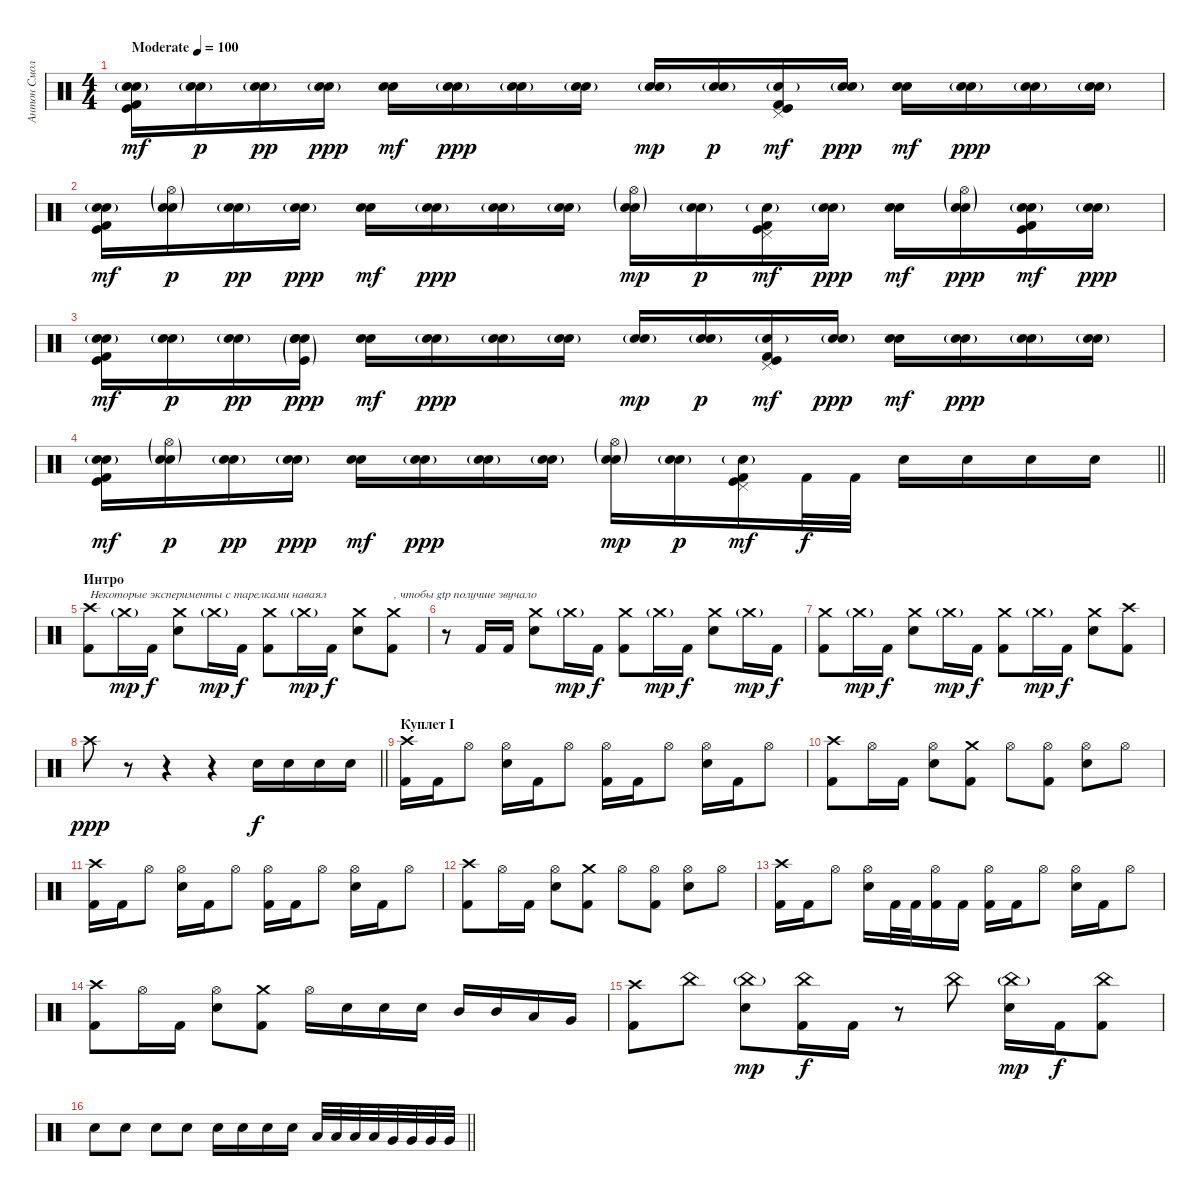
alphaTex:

\track ("Антон Смольянин" "Антон Смол") {instrument percussion}
\staff {score}
\articulation defaults
\ts (4 4)
\tempo (100 "Moderate")
\clef neutral
\ks c
("Snare (hit)"{g} "Snare (hit)"{g} "Kick (hit) 2" "Kick (hit)").16{dy mf volume 10 beam Down} ("Snare (hit)"{g} "Snare (hit)"{g}).16{dy p beam Down} ("Snare (hit)"{g} "Snare (hit)"{g}).16{dy pp beam Down} ("Snare (hit)"{g} "Snare (hit)"{g}).16{dy ppp beam Down} ("Snare (hit) 2" "Electric Snare (hit)").16{dy mf} ("Snare (hit)"{g} "Snare (hit)"{g}).16{dy ppp} ("Snare (hit)"{g} "Snare (hit)"{g}).16 ("Snare (hit)"{g} "Snare (hit)"{g}).16 ("Snare (hit)"{g} "Snare (hit)"{g}).16{dy mp} ("Snare (hit)"{g} "Snare (hit)"{g}).16{dy p} ("Pedal Hi-Hat (hit)" "Snare (hit)"{g} "Kick (hit) 2" "Kick (hit)").16{dy mf} ("Snare (hit)"{g} "Snare (hit)"{g}).16{dy ppp} ("Snare (hit) 2" "Electric Snare (hit)").16{dy mf} ("Snare (hit)"{g} "Snare (hit)"{g}).16{dy ppp} ("Snare (hit)"{g} "Snare (hit)"{g}).16 ("Snare (hit)"{g} "Snare (hit)"{g}).16 |
("Snare (hit)"{g} "Snare (hit)"{g} "Kick (hit) 2" "Kick (hit)").16{dy mf beam Down} ("Snare (hit)"{g} "Hi-Hat (open)"{g} "Snare (hit)"{g}).16{dy p beam Down} ("Snare (hit)"{g} "Snare (hit)"{g}).16{dy pp beam Down} ("Snare (hit)"{g} "Snare (hit)"{g}).16{dy ppp beam Down} ("Snare (hit) 2" "Electric Snare (hit)").16{dy mf} ("Snare (hit)"{g} "Snare (hit)"{g}).16{dy ppp} ("Snare (hit)"{g} "Snare (hit)"{g}).16 ("Snare (hit)"{g} "Snare (hit)"{g}).16 ("Snare (hit)"{g} "Hi-Hat (open)"{g} "Snare (hit)"{g}).16{dy mp} ("Snare (hit)"{g} "Snare (hit)"{g}).16{dy p} ("Pedal Hi-Hat (hit)" "Snare (hit)"{g} "Kick (hit) 2" "Kick (hit)").16{dy mf} ("Snare (hit)"{g} "Snare (hit)"{g}).16{dy ppp} ("Snare (hit) 2" "Electric Snare (hit)").16{dy mf} ("Snare (hit)"{g} "Hi-Hat (open)"{g} "Snare (hit)"{g}).16{dy ppp} ("Snare (hit)"{g} "Snare (hit)"{g} "Kick (hit) 2" "Kick (hit)").16{dy mf} ("Snare (hit)"{g} "Snare (hit)"{g}).16{dy ppp} |
("Snare (hit)"{g} "Snare (hit)"{g} "Kick (hit) 2" "Kick (hit)").16{dy mf beam Down} ("Snare (hit)"{g} "Snare (hit)"{g}).16{dy p beam Down} ("Snare (hit)"{g} "Snare (hit)"{g}).16{dy pp beam Down} ("Snare (hit)"{g} "Snare (hit)"{g} "Snare (hit)"{g} "Kick (hit)"{g}).16{dy ppp beam Down} ("Snare (hit) 2" "Electric Snare (hit)").16{dy mf} ("Snare (hit)"{g} "Snare (hit)"{g}).16{dy ppp} ("Snare (hit)"{g} "Snare (hit)"{g}).16 ("Snare (hit)"{g} "Snare (hit)"{g}).16 ("Snare (hit)"{g} "Snare (hit)"{g}).16{dy mp} ("Snare (hit)"{g} "Snare (hit)"{g}).16{dy p} ("Pedal Hi-Hat (hit)" "Snare (hit)"{g} "Kick (hit) 2" "Kick (hit)").16{dy mf} ("Snare (hit)"{g} "Snare (hit)"{g}).16{dy ppp} ("Snare (hit) 2" "Electric Snare (hit)").16{dy mf} ("Snare (hit)"{g} "Snare (hit)"{g}).16{dy ppp} ("Snare (hit)"{g} "Snare (hit)"{g}).16 ("Snare (hit)"{g} "Snare (hit)"{g}).16 |
\barLineRight lightlight
("Snare (hit)"{g} "Snare (hit)"{g} "Kick (hit) 2" "Kick (hit)").16{dy mf beam Down} ("Snare (hit)"{g} "Hi-Hat (open)"{g} "Snare (hit)"{g}).16{dy p beam Down} ("Snare (hit)"{g} "Snare (hit)"{g}).16{dy pp beam Down} ("Snare (hit)"{g} "Snare (hit)"{g}).16{dy ppp beam Down} ("Snare (hit) 2" "Electric Snare (hit)").16{dy mf} ("Snare (hit)"{g} "Snare (hit)"{g}).16{dy ppp} ("Snare (hit)"{g} "Snare (hit)"{g}).16 ("Snare (hit)"{g} "Snare (hit)"{g}).16 ("Snare (hit)"{g} "Hi-Hat (open)"{g} "Snare (hit)"{g}).16{dy mp} ("Snare (hit)"{g} "Snare (hit)"{g}).16{dy p} ("Pedal Hi-Hat (hit)" "Snare (hit)"{g} "Kick (hit) 2" "Kick (hit)").16{dy mf} "Kick (hit) 2".32{dy f volume 13} "Kick (hit) 2".32 "Electric Snare (hit)".16 "Electric Snare (hit)".16 "Electric Snare (hit)".16 "Electric Snare (hit)".16 |
\section ("" "Интро")
("Crash high (hit)" "Kick (hit) 2").8{txt "Некоторые эксперименты с тарелками наваял"} "Crash medium (hit)"{g}.16{dy mp} "Kick (hit) 2".16{dy f} ("Crash medium (hit)" "Electric Snare (hit)").8 "Crash medium (hit)"{g}.16{dy mp} "Kick (hit) 2".16{dy f} ("Crash medium (hit)" "Kick (hit) 2").8 "Crash medium (hit)"{g}.16{dy mp} "Kick (hit) 2".16{dy f} ("Crash medium (hit)" "Electric Snare (hit)").8 ("Crash medium (hit)" "Kick (hit) 2").8{txt ", чтобы gtp получше звучало"} |
r.8 "Kick (hit) 2".16 "Kick (hit) 2".16 ("Crash medium (hit)" "Electric Snare (hit)").8 "Crash medium (hit)"{g}.16{dy mp} "Kick (hit) 2".16{dy f} ("Crash medium (hit)" "Kick (hit) 2").8 "Crash medium (hit)"{g}.16{dy mp} "Kick (hit) 2".16{dy f} ("Crash medium (hit)" "Electric Snare (hit)").8 "Crash medium (hit)"{g}.16{dy mp} "Kick (hit) 2".16{dy f} |
("Crash medium (hit)" "Kick (hit) 2").8 "Crash medium (hit)"{g}.16{dy mp} "Kick (hit) 2".16{dy f} ("Crash medium (hit)" "Electric Snare (hit)").8 "Crash medium (hit)"{g}.16{dy mp} "Kick (hit) 2".16{dy f} ("Crash medium (hit)" "Kick (hit) 2").8 "Crash medium (hit)"{g}.16{dy mp} "Kick (hit) 2".16{dy f} ("Crash medium (hit)" "Electric Snare (hit)").8 ("Crash high (hit)" "Kick (hit) 2").8 |
\barLineRight lightlight "Crash high (hit)".8{dy ppp}
r.8 r.4 r.4 "Electric Snare (hit)".16{dy f} "Electric Snare (hit)".16 "Electric Snare (hit)".16 "Electric Snare (hit)".16 |
\section ("" "Куплет I")
("Crash high (hit)" "Kick (hit) 2").16 "Kick (hit) 2".16 "Hi-Hat (open)".8 ("Hi-Hat (open)" "Electric Snare (hit)").16 "Kick (hit) 2".16 "Hi-Hat (open)".8 ("Hi-Hat (open)" "Kick (hit) 2").16 "Kick (hit) 2".16 "Hi-Hat (open)".8 ("Hi-Hat (open)" "Electric Snare (hit)").16 "Kick (hit) 2".16 "Hi-Hat (open)".8 |
("Crash high (hit)" "Kick (hit) 2").8 "Hi-Hat (open)".16 "Kick (hit) 2".16 ("Hi-Hat (open)" "Electric Snare (hit)").8 ("Crash medium (hit)" "Kick (hit) 2").8 "Hi-Hat (open)".8 ("Hi-Hat (open)" "Kick (hit) 2").8 ("Hi-Hat (open)" "Electric Snare (hit)").8 "Hi-Hat (open)".8 |
("Crash high (hit)" "Kick (hit) 2").16 "Kick (hit) 2".16 "Hi-Hat (open)".8 ("Hi-Hat (open)" "Electric Snare (hit)").16 "Kick (hit) 2".16 "Hi-Hat (open)".8 ("Hi-Hat (open)" "Kick (hit) 2").16 "Kick (hit) 2".16 "Hi-Hat (open)".8 ("Hi-Hat (open)" "Electric Snare (hit)").16 "Kick (hit) 2".16 "Hi-Hat (open)".8 |
("Crash high (hit)" "Kick (hit) 2").8 "Hi-Hat (open)".16 "Kick (hit) 2".16 ("Hi-Hat (open)" "Electric Snare (hit)").8 ("Crash medium (hit)" "Kick (hit) 2").8 "Hi-Hat (open)".8 ("Hi-Hat (open)" "Kick (hit) 2").8 ("Hi-Hat (open)" "Electric Snare (hit)").8 "Hi-Hat (open)".8 |
("Crash high (hit)" "Kick (hit) 2").16 "Kick (hit) 2".16 "Hi-Hat (open)".8 ("Hi-Hat (open)" "Electric Snare (hit)").16 "Kick (hit) 2".32 "Kick (hit) 2".32 ("Hi-Hat (open)" "Kick (hit) 2").16 "Kick (hit) 2".16 ("Hi-Hat (open)" "Kick (hit) 2").16 "Kick (hit) 2".16 "Hi-Hat (open)".8 ("Hi-Hat (open)" "Electric Snare (hit)").16 "Kick (hit) 2".16 "Hi-Hat (open)".8 |
("Crash high (hit)" "Kick (hit) 2").8 "Hi-Hat (open)".16 "Kick (hit) 2".16 ("Hi-Hat (open)" "Electric Snare (hit)").8 ("Crash medium (hit)" "Kick (hit) 2").8 "Hi-Hat (open)".16 "Electric Snare (hit)".16 "Electric Snare (hit)".16 "Electric Snare (hit)".16 "Mid Tom (hit)".16 "Mid Tom (hit)".16 "Low Tom (hit)".16 "Very Low Tom (hit)".16 |
("Crash high (hit)" "Kick (hit) 2").8 "China (hit)".8 ("China (hit)"{g} "Electric Snare (hit)").8{dy mp} ("China (hit)" "Kick (hit) 2").16{dy f} "Kick (hit) 2".16 r.8 "China (hit)".8 ("China (hit)"{g} "Electric Snare (hit)").16{dy mp} "Kick (hit) 2".16{dy f} ("China (hit)" "Kick (hit) 2").8 |
\barLineRight lightlight "Electric Snare (hit)".8 "Electric Snare (hit)".8 "Electric Snare (hit)".8 "Electric Snare (hit)".8 "Electric Snare (hit)".16 "Electric Snare (hit)".16 "Electric Snare (hit)".16 "Electric Snare (hit)".16 "Low Tom (hit)".32 "Low Tom (hit)".32 "Low Tom (hit)".32 "Low Tom (hit)".32 "Very Low Tom (hit)".32 "Very Low Tom (hit)".32 "Very Low Tom (hit)".32 "Very Low Tom (hit)".32
